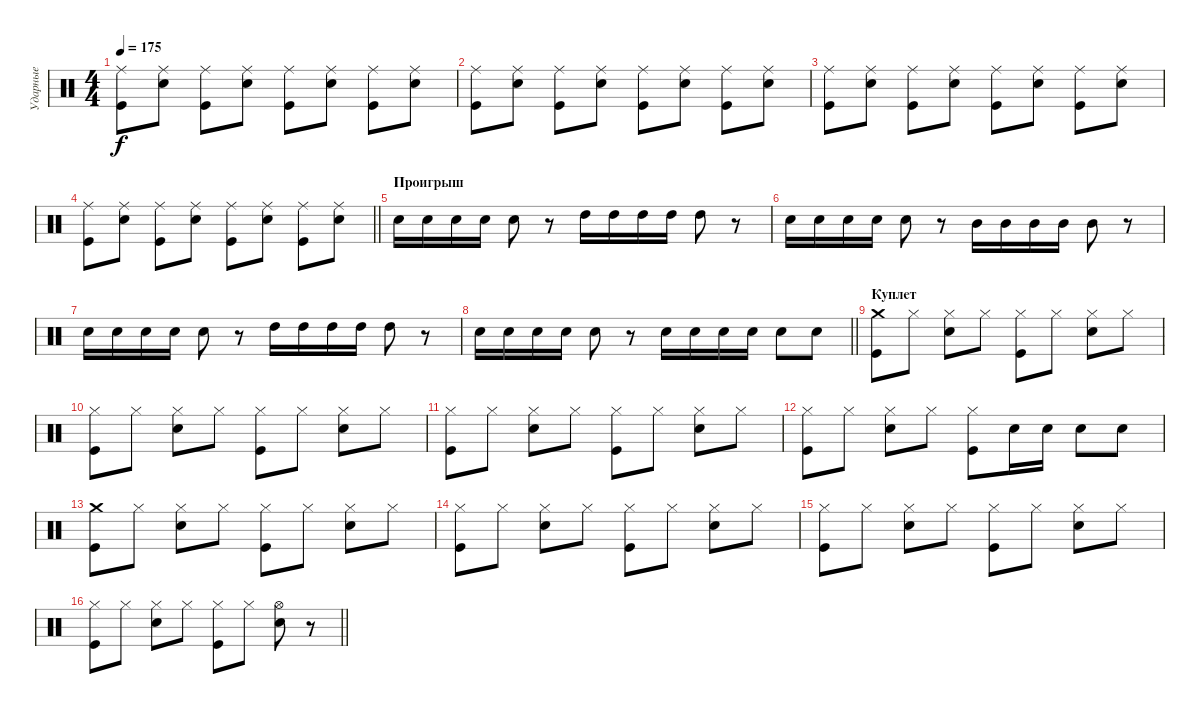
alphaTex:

\track ("Ударные" "Ударные") {instrument percussion}
\staff {score}
\articulation defaults
\ts (4 4)
\tempo 175
\clef neutral
\ks c
("Ride (middle)" "Kick (hit)").8{dy f} ("Ride (middle)" "Electric Snare (hit)").8 ("Ride (middle)" "Kick (hit)").8 ("Ride (middle)" "Electric Snare (hit)").8 ("Ride (middle)" "Kick (hit)").8 ("Ride (middle)" "Electric Snare (hit)").8 ("Ride (middle)" "Kick (hit)").8 ("Ride (middle)" "Electric Snare (hit)").8 |
("Ride (middle)" "Kick (hit)").8 ("Ride (middle)" "Electric Snare (hit)").8 ("Ride (middle)" "Kick (hit)").8 ("Ride (middle)" "Electric Snare (hit)").8 ("Ride (middle)" "Kick (hit)").8 ("Ride (middle)" "Electric Snare (hit)").8 ("Ride (middle)" "Kick (hit)").8 ("Ride (middle)" "Electric Snare (hit)").8 |
("Ride (middle)" "Kick (hit)").8 ("Ride (middle)" "Electric Snare (hit)").8 ("Ride (middle)" "Kick (hit)").8 ("Ride (middle)" "Electric Snare (hit)").8 ("Ride (middle)" "Kick (hit)").8 ("Ride (middle)" "Electric Snare (hit)").8 ("Ride (middle)" "Kick (hit)").8 ("Ride (middle)" "Electric Snare (hit)").8 |
\barLineRight lightlight
("Ride (middle)" "Kick (hit)").8 ("Ride (middle)" "Electric Snare (hit)").8 ("Ride (middle)" "Kick (hit)").8 ("Ride (middle)" "Electric Snare (hit)").8 ("Ride (middle)" "Kick (hit)").8 ("Ride (middle)" "Electric Snare (hit)").8 ("Ride (middle)" "Kick (hit)").8 ("Ride (middle)" "Electric Snare (hit)").8 |
\section ("" "Проигрыш")
"Electric Snare (hit)".16 "Electric Snare (hit)".16 "Electric Snare (hit)".16 "Electric Snare (hit)".16 "Electric Snare (hit)".8 r.8 "High Tom (hit)".16 "High Tom (hit)".16 "High Tom (hit)".16 "High Tom (hit)".16 "High Tom (hit)".8 r.8 |
"Electric Snare (hit)".16 "Electric Snare (hit)".16 "Electric Snare (hit)".16 "Electric Snare (hit)".16 "Electric Snare (hit)".8 r.8 "Mid Tom (hit)".16 "Mid Tom (hit)".16 "Mid Tom (hit)".16 "Mid Tom (hit)".16 "Mid Tom (hit)".8 r.8 |
"Electric Snare (hit)".16 "Electric Snare (hit)".16 "Electric Snare (hit)".16 "Electric Snare (hit)".16 "Electric Snare (hit)".8 r.8 "High Tom (hit)".16 "High Tom (hit)".16 "High Tom (hit)".16 "High Tom (hit)".16 "High Tom (hit)".8 r.8 |
\barLineRight lightlight "Electric Snare (hit)".16 "Electric Snare (hit)".16 "Electric Snare (hit)".16 "Electric Snare (hit)".16 "Electric Snare (hit)".8
r.8 "Electric Snare (hit)".16 "Electric Snare (hit)".16 "Electric Snare (hit)".16 "Electric Snare (hit)".16 "Electric Snare (hit)".8 "Electric Snare (hit)".8 |
\section ("" "Куплет")
("Crash medium (hit)" "Kick (hit)").8 "Hi-Hat (closed)".8 ("Hi-Hat (closed)" "Electric Snare (hit)").8 "Hi-Hat (closed)".8 ("Hi-Hat (closed)" "Kick (hit)").8 "Hi-Hat (closed)".8 ("Hi-Hat (closed)" "Electric Snare (hit)").8 "Hi-Hat (closed)".8 |
("Hi-Hat (closed)" "Kick (hit)").8 "Hi-Hat (closed)".8 ("Hi-Hat (closed)" "Electric Snare (hit)").8 "Hi-Hat (closed)".8 ("Hi-Hat (closed)" "Kick (hit)").8 "Hi-Hat (closed)".8 ("Hi-Hat (closed)" "Electric Snare (hit)").8 "Hi-Hat (closed)".8 |
("Hi-Hat (closed)" "Kick (hit)").8 "Hi-Hat (closed)".8 ("Hi-Hat (closed)" "Electric Snare (hit)").8 "Hi-Hat (closed)".8 ("Hi-Hat (closed)" "Kick (hit)").8 "Hi-Hat (closed)".8 ("Hi-Hat (closed)" "Electric Snare (hit)").8 "Hi-Hat (closed)".8 |
("Hi-Hat (closed)" "Kick (hit)").8 "Hi-Hat (closed)".8 ("Hi-Hat (closed)" "Electric Snare (hit)").8 "Hi-Hat (closed)".8 ("Hi-Hat (closed)" "Kick (hit)").8 "Electric Snare (hit)".16 "Electric Snare (hit)".16 "Electric Snare (hit)".8 "Electric Snare (hit)".8 |
("Crash medium (hit)" "Kick (hit)").8 "Hi-Hat (closed)".8 ("Hi-Hat (closed)" "Electric Snare (hit)").8 "Hi-Hat (closed)".8 ("Hi-Hat (closed)" "Kick (hit)").8 "Hi-Hat (closed)".8 ("Hi-Hat (closed)" "Electric Snare (hit)").8 "Hi-Hat (closed)".8 |
("Hi-Hat (closed)" "Kick (hit)").8 "Hi-Hat (closed)".8 ("Hi-Hat (closed)" "Electric Snare (hit)").8 "Hi-Hat (closed)".8 ("Hi-Hat (closed)" "Kick (hit)").8 "Hi-Hat (closed)".8 ("Hi-Hat (closed)" "Electric Snare (hit)").8 "Hi-Hat (closed)".8 |
("Hi-Hat (closed)" "Kick (hit)").8 "Hi-Hat (closed)".8 ("Hi-Hat (closed)" "Electric Snare (hit)").8 "Hi-Hat (closed)".8 ("Hi-Hat (closed)" "Kick (hit)").8 "Hi-Hat (closed)".8 ("Hi-Hat (closed)" "Electric Snare (hit)").8 "Hi-Hat (closed)".8 |
\barLineRight lightlight
("Hi-Hat (closed)" "Kick (hit)").8 "Hi-Hat (closed)".8 ("Hi-Hat (closed)" "Electric Snare (hit)").8 "Hi-Hat (closed)".8 ("Hi-Hat (closed)" "Kick (hit)").8 "Hi-Hat (closed)".8 ("Hi-Hat (open)" "Electric Snare (hit)").8 r.8
